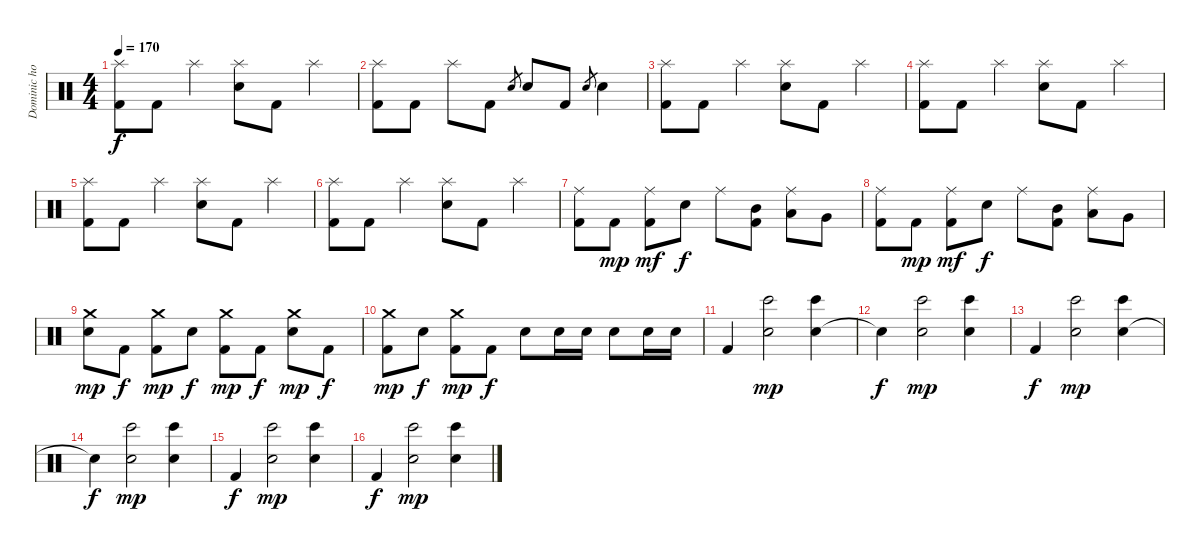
\track ("Dominic howard" "Dominic ho") {instrument percussion}
\staff {score}
\articulation defaults
\ts (4 4)
\tempo 170
\clef neutral
\ks c
("Splash (hit)" "Kick (hit) 2").8{dy f} "Kick (hit) 2".8 "Splash (hit)".4 ("Splash (hit)" "Electric Snare (hit)").8 "Kick (hit) 2".8 "Splash (hit)".4 |
("Splash (hit)" "Kick (hit) 2").8 "Kick (hit) 2".8 "Splash (hit)".8 "Kick (hit) 2".8 "Electric Snare (hit)".8{gr} "Electric Snare (hit)".8 "Kick (hit) 2".8 "Electric Snare (hit)".8{gr} "Electric Snare (hit)".4 |
("Splash (hit)" "Kick (hit) 2").8 "Kick (hit) 2".8 "Splash (hit)".4 ("Splash (hit)" "Electric Snare (hit)").8 "Kick (hit) 2".8 "Splash (hit)".4 |
("Splash (hit)" "Kick (hit) 2").8 "Kick (hit) 2".8 "Splash (hit)".4 ("Splash (hit)" "Electric Snare (hit)").8 "Kick (hit) 2".8 "Splash (hit)".4 |
("Splash (hit)" "Kick (hit) 2").8 "Kick (hit) 2".8 "Splash (hit)".4 ("Splash (hit)" "Electric Snare (hit)").8 "Kick (hit) 2".8 "Splash (hit)".4 |
("Splash (hit)" "Kick (hit) 2").8 "Kick (hit) 2".8 "Splash (hit)".4 ("Splash (hit)" "Electric Snare (hit)").8 "Kick (hit) 2".8 "Splash (hit)".4 |
("Ride (middle)" "Kick (hit) 2").8 "Kick (hit) 2".8{dy mp} ("Ride (middle)" "Kick (hit) 2").8{dy mf} "Electric Snare (hit)".8{dy f} "Ride (middle)".8 ("Mid Tom (hit)" "Kick (hit) 2").8 ("Ride (middle)" "Low Tom (hit)").8 "Very Low Tom (hit)".8 |
("Ride (middle)" "Kick (hit) 2").8 "Kick (hit) 2".8{dy mp} ("Ride (middle)" "Kick (hit) 2").8{dy mf} "Electric Snare (hit)".8{dy f} "Ride (middle)".8 ("Mid Tom (hit)" "Kick (hit) 2").8 ("Ride (middle)" "Low Tom (hit)").8 "Very Low Tom (hit)".8 |
("Crash medium (hit)" "Electric Snare (hit)").8{dy mp} "Kick (hit) 2".8{dy f} ("Crash medium (hit)" "Kick (hit) 2").8{dy mp} "Electric Snare (hit)".8{dy f} ("Crash medium (hit)" "Kick (hit) 2").8{dy mp} "Kick (hit) 2".8{dy f} ("Crash medium (hit)" "Electric Snare (hit)").8{dy mp} "Kick (hit) 2".8{dy f} |
("Crash medium (hit)" "Kick (hit) 2").8{dy mp} "Electric Snare (hit)".8{dy f} ("Crash medium (hit)" "Kick (hit) 2").8{dy mp} "Kick (hit) 2".8{dy f} "Electric Snare (hit)".8 "Electric Snare (hit)".16 "Electric Snare (hit)".16 "Electric Snare (hit)".8 "Electric Snare (hit)".16 "Electric Snare (hit)".16 |
"Kick (hit) 2".4 ("Electric Snare (hit)" "Bongo High (hit)").2{dy mp} ("Electric Snare (hit)" "Bongo High (hit)").4 |
"Snare (hit)"{t}.4{dy f} ("Electric Snare (hit)" "Bongo High (hit)").2{dy mp} ("Electric Snare (hit)" "Bongo High (hit)").4 |
"Kick (hit) 2".4{dy f} ("Electric Snare (hit)" "Bongo High (hit)").2{dy mp} ("Electric Snare (hit)" "Bongo High (hit)").4 |
"Snare (hit)"{t}.4{dy f} ("Electric Snare (hit)" "Bongo High (hit)").2{dy mp} ("Electric Snare (hit)" "Bongo High (hit)").4 |
"Kick (hit) 2".4{dy f} ("Electric Snare (hit)" "Bongo High (hit)").2{dy mp} ("Electric Snare (hit)" "Bongo High (hit)").4 |
"Kick (hit) 2".4{dy f} ("Electric Snare (hit)" "Bongo High (hit)").2{dy mp} ("Electric Snare (hit)" "Bongo High (hit)").4
